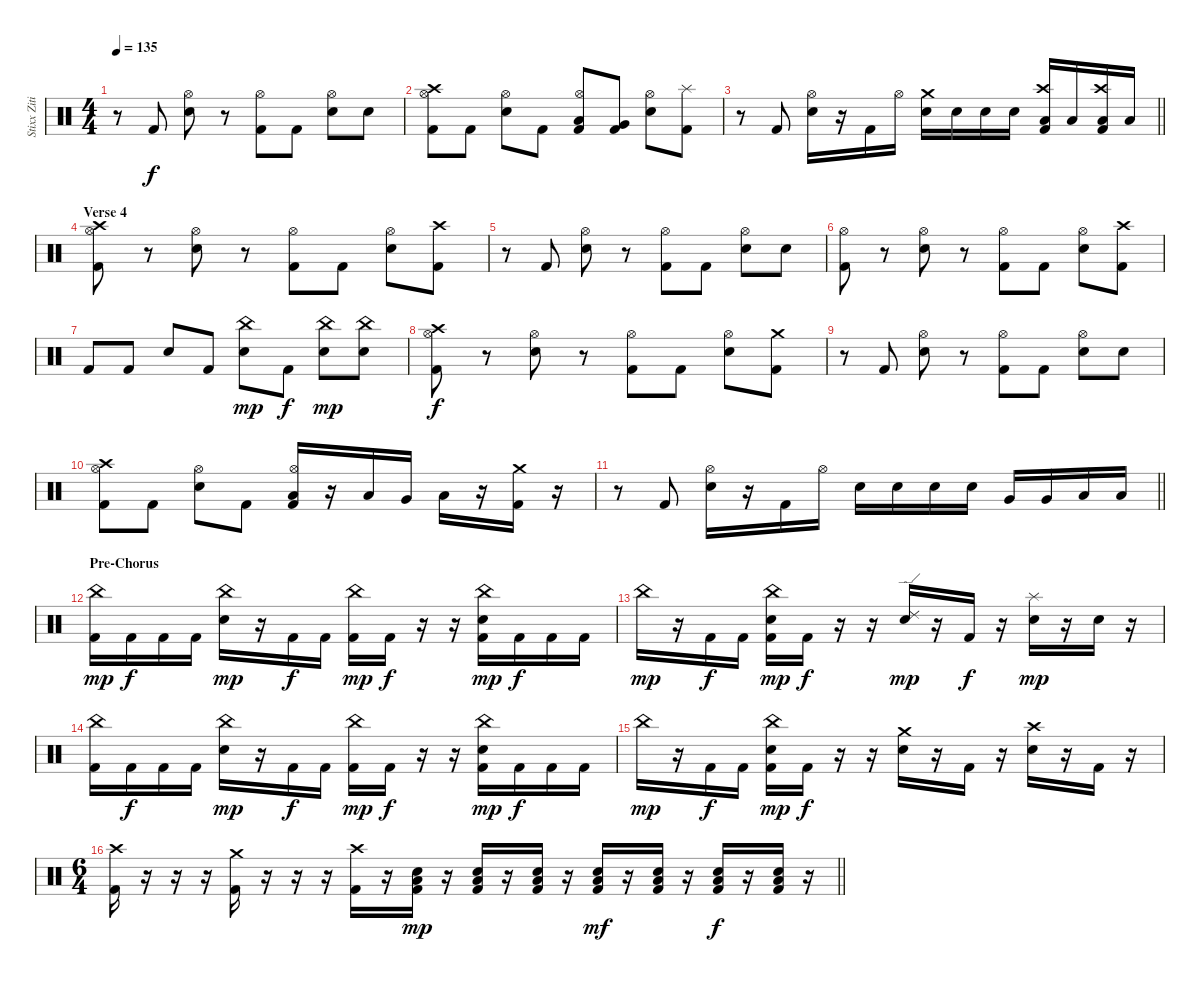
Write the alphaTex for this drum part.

\track ("Stixx Zitinya Drums" "Stixx Ziti") {instrument percussion}
\staff {score}
\articulation defaults
\ts (4 4)
\tempo 135
\clef neutral
\ks c
r.8{dy f} "Kick (hit) 2".8 ("Hi-Hat (open)" "Snare (hit) 2").8 r.8 ("Hi-Hat (open)" "Kick (hit) 2").8 "Kick (hit) 2".8 ("Hi-Hat (open)" "Snare (hit) 2").8 "Snare (hit) 2".8 |
("Crash high (hit)" "Hi-Hat (open)" "Kick (hit) 2").8 "Kick (hit) 2".8 ("Hi-Hat (open)" "Snare (hit) 2").8 "Kick (hit) 2".8 ("Hi-Hat (open)" "Low Tom (hit)" "Kick (hit) 2").8 ("Very Low Tom (hit)" "Kick (hit) 2").8 ("Hi-Hat (open)" "Snare (hit) 2").8 ("Splash (hit)" "Kick (hit) 2").8 |
\barLineRight lightlight
r.8 "Kick (hit) 2".8 ("Hi-Hat (open)" "Snare (hit) 2").16 r.16 "Kick (hit) 2".16 "Hi-Hat (open)".16 ("Crash medium (hit)" "Snare (hit) 2").16 "Snare (hit) 2".16 "Snare (hit) 2".16 "Snare (hit) 2".16 ("Crash high (hit)" "Low Floor Tom (hit)" "Kick (hit) 2").16 "Low Floor Tom (hit)".16 ("Crash high (hit)" "Low Floor Tom (hit)" "Kick (hit) 2").16 "Low Floor Tom (hit)".16 |
\section ("" "Verse 4")
("Crash high (hit)" "Hi-Hat (open)" "Kick (hit) 2").8 r.8 ("Hi-Hat (open)" "Snare (hit) 2").8 r.8 ("Hi-Hat (open)" "Kick (hit) 2").8 "Kick (hit) 2".8 ("Hi-Hat (open)" "Snare (hit) 2").8 ("Crash high (hit)" "Kick (hit) 2").8 |
r.8 "Kick (hit) 2".8 ("Hi-Hat (open)" "Snare (hit) 2").8 r.8 ("Hi-Hat (open)" "Kick (hit) 2").8 "Kick (hit) 2".8 ("Hi-Hat (open)" "Snare (hit) 2").8 "Snare (hit) 2".8 |
("Hi-Hat (open)" "Kick (hit) 2").8 r.8 ("Hi-Hat (open)" "Snare (hit) 2").8 r.8 ("Hi-Hat (open)" "Kick (hit) 2").8 "Kick (hit) 2".8 ("Hi-Hat (open)" "Snare (hit) 2").8 ("Crash high (hit)" "Kick (hit) 2").8 |
"Kick (hit) 2".8 "Kick (hit) 2".8 "Snare (hit) 2".8 "Kick (hit) 2".8 ("China (hit)" "Snare (hit) 2").8{dy mp} "Kick (hit) 2".8{dy f} ("China (hit)" "Snare (hit) 2").8{dy mp} ("China (hit)" "Snare (hit) 2").8 |
("Crash high (hit)" "Hi-Hat (open)" "Kick (hit) 2").8{dy f} r.8 ("Hi-Hat (open)" "Snare (hit) 2").8 r.8 ("Hi-Hat (open)" "Kick (hit) 2").8 "Kick (hit) 2".8 ("Hi-Hat (open)" "Snare (hit) 2").8 ("Crash medium (hit)" "Kick (hit) 2").8 |
r.8 "Kick (hit) 2".8 ("Hi-Hat (open)" "Snare (hit) 2").8 r.8 ("Hi-Hat (open)" "Kick (hit) 2").8 "Kick (hit) 2".8 ("Hi-Hat (open)" "Snare (hit) 2").8 "Snare (hit) 2".8 |
("Crash high (hit)" "Hi-Hat (open)" "Kick (hit) 2").8 "Kick (hit) 2".8 ("Hi-Hat (open)" "Snare (hit) 2").8 "Kick (hit) 2".8 ("Hi-Hat (open)" "Low Tom (hit)" "Kick (hit) 2").16 r.16 "Low Tom (hit)".16 "Very Low Tom (hit)".16 "Low Floor Tom (hit)".16 r.16 ("Crash medium (hit)" "Kick (hit) 2").16 r.16 |
\barLineRight lightlight
r.8 "Kick (hit) 2".8 ("Hi-Hat (open)" "Snare (hit) 2").16 r.16 "Kick (hit) 2".16 "Hi-Hat (open)".16 "Snare (hit) 2".16 "Snare (hit) 2".16 "Snare (hit) 2".16 "Snare (hit) 2".16 "Very Low Tom (hit)".16 "Very Low Tom (hit)".16 "Low Floor Tom (hit)".16 "Low Floor Tom (hit)".16 |
\section ("" "Pre-Chorus")
("China (hit)" "Kick (hit) 2").16{dy mp} "Kick (hit) 2".16{dy f} "Kick (hit) 2".16 "Kick (hit) 2".16 ("China (hit)" "Snare (hit) 2").16{dy mp} r.16 "Kick (hit) 2".16{dy f} "Kick (hit) 2".16 ("China (hit)" "Kick (hit) 2").16{dy mp} "Kick (hit) 2".16{dy f} r.16 r.16 ("China (hit)" "Snare (hit) 2" "Kick (hit) 2").16{dy mp} "Kick (hit) 2".16{dy f} "Kick (hit) 2".16 "Kick (hit) 2".16 |
"China (hit)".16{dy mp} r.16 "Kick (hit) 2".16{dy f} "Kick (hit) 2".16 ("China (hit)" "Snare (hit) 2" "Kick (hit) 2").16{dy mp} "Kick (hit) 2".16{dy f} r.16 r.16 ("Ride (edge) 2" "Snare (hit) 2").16{dy mp} r.16 "Kick (hit) 2".16{dy f} r.16 ("Splash (hit)" "Snare (hit) 2").16{dy mp} r.16 "Snare (hit) 2".16 r.16 |
("China (hit)" "Kick (hit) 2").16 "Kick (hit) 2".16{dy f} "Kick (hit) 2".16 "Kick (hit) 2".16 ("China (hit)" "Snare (hit) 2").16{dy mp} r.16 "Kick (hit) 2".16{dy f} "Kick (hit) 2".16 ("China (hit)" "Kick (hit) 2").16{dy mp} "Kick (hit) 2".16{dy f} r.16 r.16 ("China (hit)" "Snare (hit) 2" "Kick (hit) 2").16{dy mp} "Kick (hit) 2".16{dy f} "Kick (hit) 2".16 "Kick (hit) 2".16 |
"China (hit)".16{dy mp} r.16 "Kick (hit) 2".16{dy f} "Kick (hit) 2".16 ("China (hit)" "Snare (hit) 2" "Kick (hit) 2").16{dy mp} "Kick (hit) 2".16{dy f} r.16 r.16 ("Crash medium (hit)" "Snare (hit) 2").16 r.16 "Kick (hit) 2".16 r.16 ("Crash high (hit)" "Snare (hit) 2").16 r.16 "Kick (hit) 2".16 r.16 |
\ts (6 4)
\barLineRight lightlight
("Crash high (hit)" "Kick (hit) 2").16 r.16 r.16 r.16 ("Crash medium (hit)" "Kick (hit) 2").16 r.16 r.16 r.16 ("Crash high (hit)" "Kick (hit) 2").16 r.16 ("Low Floor Tom (hit)" "Snare (hit) 2" "Kick (hit) 2").16{dy mp} r.16 ("Low Floor Tom (hit)" "Snare (hit) 2" "Kick (hit) 2").16 r.16 ("Low Floor Tom (hit)" "Snare (hit) 2" "Kick (hit) 2").16 r.16 ("Low Floor Tom (hit)" "Snare (hit) 2" "Kick (hit) 2").16{dy mf} r.16 ("Low Floor Tom (hit)" "Snare (hit) 2" "Kick (hit) 2").16 r.16 ("Low Floor Tom (hit)" "Snare (hit) 2" "Kick (hit) 2").16{dy f} r.16 ("Low Floor Tom (hit)" "Snare (hit) 2" "Kick (hit) 2").16 r.16
